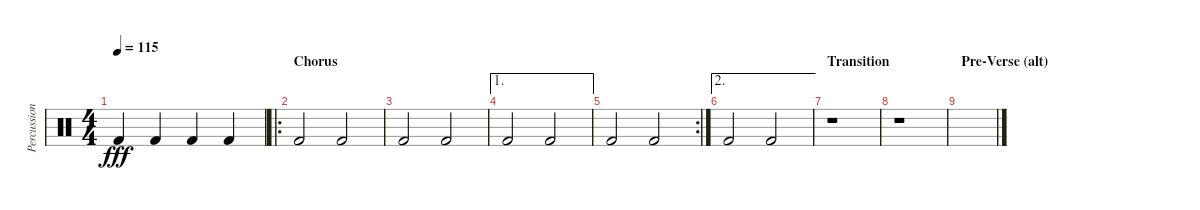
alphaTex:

\track ("Percussion/Booster" "Percussion") {instrument percussion}
\staff {score}
\articulation defaults
\ts (4 4)
\tempo 115
\clef neutral
\ks c "Kick (hit) 2".4{dy fff} "Kick (hit) 2".4 "Kick (hit) 2".4 "Kick (hit) 2".4
|
\ro
\section ("" "Chorus")
"Kick (hit) 2".2 "Kick (hit) 2".2 |
"Kick (hit) 2".2 "Kick (hit) 2".2 |
\ae 1 "Kick (hit) 2".2 "Kick (hit) 2".2
|
\rc 2 "Kick (hit) 2".2 "Kick (hit) 2".2
|
\ae 2 "Kick (hit) 2".2 "Kick (hit) 2".2
|
\section ("" "Transition")
r.1 |
r.1 |
\section ("" "Pre-Verse (alt)")
